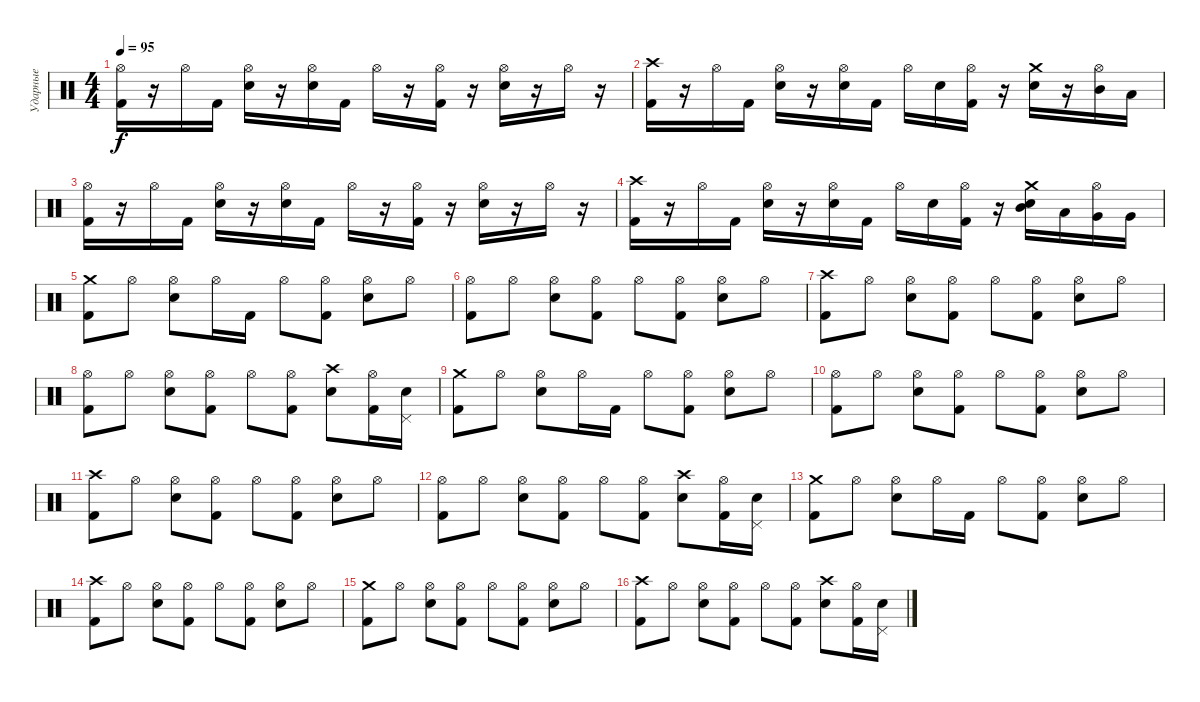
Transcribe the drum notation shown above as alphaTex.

\track ("Ударные" "Ударные") {instrument percussion}
\staff {score}
\articulation defaults
\ts (4 4)
\tempo 95
\clef neutral
\ks c
("Hi-Hat (open)" "Kick (hit) 2").16{dy f} r.16 "Hi-Hat (open)".16 "Kick (hit) 2".16 ("Hi-Hat (open)" "Snare (hit) 2").16 r.16 ("Hi-Hat (open)" "Snare (hit) 2").16 "Kick (hit) 2".16 "Hi-Hat (open)".16 r.16 ("Hi-Hat (open)" "Kick (hit) 2").16 r.16 ("Hi-Hat (open)" "Snare (hit) 2").16 r.16 "Hi-Hat (open)".16 r.16 |
("Crash high (hit)" "Kick (hit) 2").16 r.16 "Hi-Hat (open)".16 "Kick (hit) 2".16 ("Hi-Hat (open)" "Snare (hit) 2").16 r.16 ("Hi-Hat (open)" "Snare (hit) 2").16 "Kick (hit) 2".16 "Hi-Hat (open)".16 "Snare (hit) 2".16 ("Hi-Hat (open)" "Kick (hit) 2").16 r.16 ("Crash medium (hit)" "Snare (hit) 2").16 r.16 ("Hi-Hat (open)" "Mid Tom (hit)").16 "Low Tom (hit)".16 |
("Hi-Hat (open)" "Kick (hit) 2").16 r.16 "Hi-Hat (open)".16 "Kick (hit) 2".16 ("Hi-Hat (open)" "Snare (hit) 2").16 r.16 ("Hi-Hat (open)" "Snare (hit) 2").16 "Kick (hit) 2".16 "Hi-Hat (open)".16 r.16 ("Hi-Hat (open)" "Kick (hit) 2").16 r.16 ("Hi-Hat (open)" "Snare (hit) 2").16 r.16 "Hi-Hat (open)".16 r.16 |
("Crash high (hit)" "Kick (hit) 2").16 r.16 "Hi-Hat (open)".16 "Kick (hit) 2".16 ("Hi-Hat (open)" "Snare (hit) 2").16 r.16 ("Hi-Hat (open)" "Snare (hit) 2").16 "Kick (hit) 2".16 "Hi-Hat (open)".16 "Snare (hit) 2".16 ("Hi-Hat (open)" "Kick (hit) 2").16 r.16 ("Crash medium (hit)" "Mid Tom (hit)" "Snare (hit) 2").16 "Low Tom (hit)".16 ("Hi-Hat (open)" "Very Low Tom (hit)").16 "Very Low Tom (hit)".16 |
("Crash medium (hit)" "Kick (hit) 2").8 "Hi-Hat (open)".8 ("Hi-Hat (open)" "Snare (hit) 2").8 "Hi-Hat (open)".16 "Kick (hit) 2".16 "Hi-Hat (open)".8 ("Hi-Hat (open)" "Kick (hit) 2").8 ("Hi-Hat (open)" "Snare (hit) 2").8 "Hi-Hat (open)".8 |
("Hi-Hat (open)" "Kick (hit) 2").8 "Hi-Hat (open)".8 ("Hi-Hat (open)" "Snare (hit) 2").8 ("Hi-Hat (open)" "Kick (hit) 2").8 "Hi-Hat (open)".8 ("Hi-Hat (open)" "Kick (hit) 2").8 ("Hi-Hat (open)" "Snare (hit) 2").8 "Hi-Hat (open)".8 |
("Crash high (hit)" "Kick (hit) 2").8 "Hi-Hat (open)".8 ("Hi-Hat (open)" "Snare (hit) 2").8 ("Hi-Hat (open)" "Kick (hit) 2").8 "Hi-Hat (open)".8 ("Hi-Hat (open)" "Kick (hit) 2").8 ("Hi-Hat (open)" "Snare (hit) 2").8 "Hi-Hat (open)".8 |
("Hi-Hat (open)" "Kick (hit) 2").8 "Hi-Hat (open)".8 ("Hi-Hat (open)" "Snare (hit) 2").8 ("Hi-Hat (open)" "Kick (hit) 2").8 "Hi-Hat (open)".8 ("Hi-Hat (open)" "Kick (hit) 2").8 ("Crash high (hit)" "Snare (hit) 2").8 ("Hi-Hat (open)" "Kick (hit) 2").16 ("Pedal Hi-Hat (hit)" "Snare (hit) 2").16 |
("Crash medium (hit)" "Kick (hit) 2").8 "Hi-Hat (open)".8 ("Hi-Hat (open)" "Snare (hit) 2").8 "Hi-Hat (open)".16 "Kick (hit) 2".16 "Hi-Hat (open)".8 ("Hi-Hat (open)" "Kick (hit) 2").8 ("Hi-Hat (open)" "Snare (hit) 2").8 "Hi-Hat (open)".8 |
("Hi-Hat (open)" "Kick (hit) 2").8 "Hi-Hat (open)".8 ("Hi-Hat (open)" "Snare (hit) 2").8 ("Hi-Hat (open)" "Kick (hit) 2").8 "Hi-Hat (open)".8 ("Hi-Hat (open)" "Kick (hit) 2").8 ("Hi-Hat (open)" "Snare (hit) 2").8 "Hi-Hat (open)".8 |
("Crash high (hit)" "Kick (hit) 2").8 "Hi-Hat (open)".8 ("Hi-Hat (open)" "Snare (hit) 2").8 ("Hi-Hat (open)" "Kick (hit) 2").8 "Hi-Hat (open)".8 ("Hi-Hat (open)" "Kick (hit) 2").8 ("Hi-Hat (open)" "Snare (hit) 2").8 "Hi-Hat (open)".8 |
("Hi-Hat (open)" "Kick (hit) 2").8 "Hi-Hat (open)".8 ("Hi-Hat (open)" "Snare (hit) 2").8 ("Hi-Hat (open)" "Kick (hit) 2").8 "Hi-Hat (open)".8 ("Hi-Hat (open)" "Kick (hit) 2").8 ("Crash high (hit)" "Snare (hit) 2").8 ("Hi-Hat (open)" "Kick (hit) 2").16 ("Pedal Hi-Hat (hit)" "Snare (hit) 2").16 |
("Crash medium (hit)" "Kick (hit) 2").8 "Hi-Hat (open)".8 ("Hi-Hat (open)" "Snare (hit) 2").8 "Hi-Hat (open)".16 "Kick (hit) 2".16 "Hi-Hat (open)".8 ("Hi-Hat (open)" "Kick (hit) 2").8 ("Hi-Hat (open)" "Snare (hit) 2").8 "Hi-Hat (open)".8 |
("Crash high (hit)" "Kick (hit) 2").8 "Hi-Hat (open)".8 ("Hi-Hat (open)" "Snare (hit) 2").8 ("Hi-Hat (open)" "Kick (hit) 2").8 "Hi-Hat (open)".8 ("Hi-Hat (open)" "Kick (hit) 2").8 ("Hi-Hat (open)" "Snare (hit) 2").8 "Hi-Hat (open)".8 |
("Crash medium (hit)" "Kick (hit) 2").8 "Hi-Hat (open)".8 ("Hi-Hat (open)" "Snare (hit) 2").8 ("Hi-Hat (open)" "Kick (hit) 2").8 "Hi-Hat (open)".8 ("Hi-Hat (open)" "Kick (hit) 2").8 ("Hi-Hat (open)" "Snare (hit) 2").8 "Hi-Hat (open)".8 |
("Crash high (hit)" "Kick (hit) 2").8 "Hi-Hat (open)".8 ("Hi-Hat (open)" "Snare (hit) 2").8 ("Hi-Hat (open)" "Kick (hit) 2").8 "Hi-Hat (open)".8 ("Hi-Hat (open)" "Kick (hit) 2").8 ("Crash high (hit)" "Snare (hit) 2").8 ("Hi-Hat (open)" "Kick (hit) 2").16 ("Pedal Hi-Hat (hit)" "Snare (hit) 2").16
